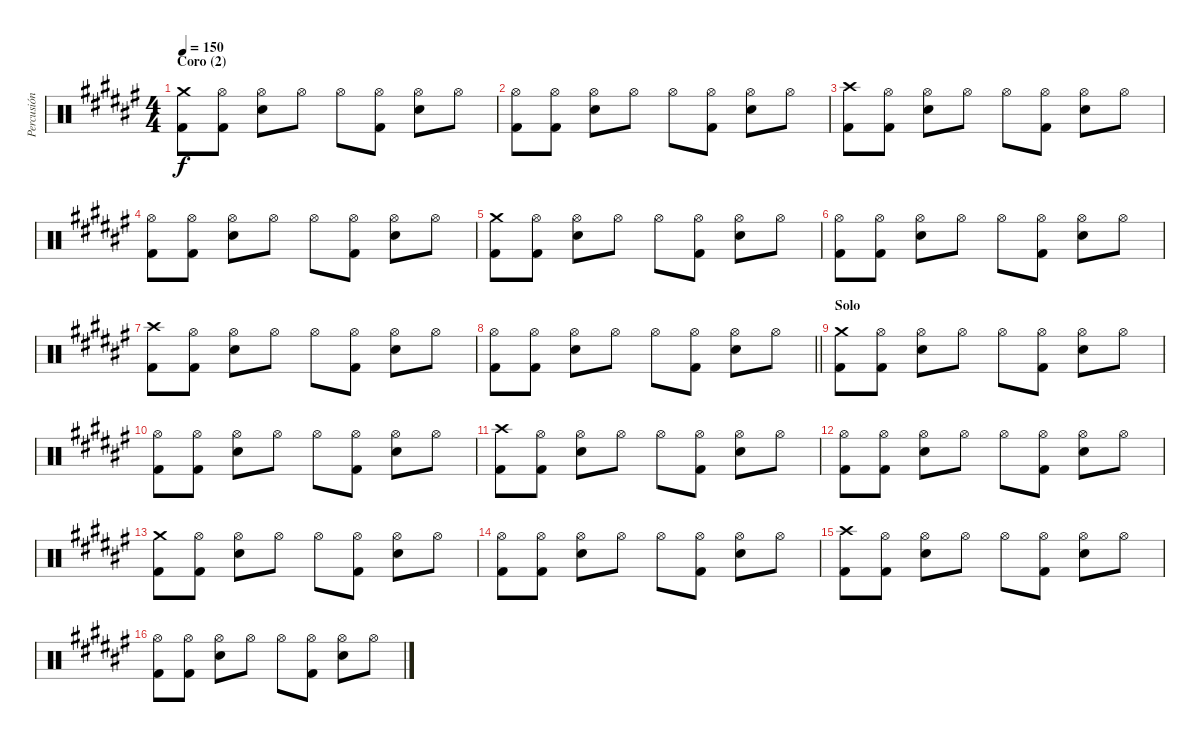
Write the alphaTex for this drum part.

\track ("Percusión" "Percusión") {instrument percussion}
\staff {score}
\articulation defaults
\ts (4 4)
\section ("" "Coro (2)")
\tempo 150
\clef neutral
\ks d#minor
("Crash medium (hit)" "Kick (hit) 2").8{dy f} ("Hi-Hat (open)" "Kick (hit) 2").8 ("Hi-Hat (open)" "Electric Snare (hit)").8 "Hi-Hat (open)".8 "Hi-Hat (open)".8 ("Hi-Hat (open)" "Kick (hit) 2").8 ("Hi-Hat (open)" "Electric Snare (hit)").8 "Hi-Hat (open)".8 |
("Hi-Hat (open)" "Kick (hit) 2").8 ("Hi-Hat (open)" "Kick (hit) 2").8 ("Hi-Hat (open)" "Electric Snare (hit)").8 "Hi-Hat (open)".8 "Hi-Hat (open)".8 ("Hi-Hat (open)" "Kick (hit) 2").8 ("Hi-Hat (open)" "Electric Snare (hit)").8 "Hi-Hat (open)".8 |
("Crash high (hit)" "Kick (hit) 2").8 ("Hi-Hat (open)" "Kick (hit) 2").8 ("Hi-Hat (open)" "Electric Snare (hit)").8 "Hi-Hat (open)".8 "Hi-Hat (open)".8 ("Hi-Hat (open)" "Kick (hit) 2").8 ("Hi-Hat (open)" "Electric Snare (hit)").8 "Hi-Hat (open)".8 |
("Hi-Hat (open)" "Kick (hit) 2").8 ("Hi-Hat (open)" "Kick (hit) 2").8 ("Hi-Hat (open)" "Electric Snare (hit)").8 "Hi-Hat (open)".8 "Hi-Hat (open)".8 ("Hi-Hat (open)" "Kick (hit) 2").8 ("Hi-Hat (open)" "Electric Snare (hit)").8 "Hi-Hat (open)".8 |
("Crash medium (hit)" "Kick (hit) 2").8 ("Hi-Hat (open)" "Kick (hit) 2").8 ("Hi-Hat (open)" "Electric Snare (hit)").8 "Hi-Hat (open)".8 "Hi-Hat (open)".8 ("Hi-Hat (open)" "Kick (hit) 2").8 ("Hi-Hat (open)" "Electric Snare (hit)").8 "Hi-Hat (open)".8 |
("Hi-Hat (open)" "Kick (hit) 2").8 ("Hi-Hat (open)" "Kick (hit) 2").8 ("Hi-Hat (open)" "Electric Snare (hit)").8 "Hi-Hat (open)".8 "Hi-Hat (open)".8 ("Hi-Hat (open)" "Kick (hit) 2").8 ("Hi-Hat (open)" "Electric Snare (hit)").8 "Hi-Hat (open)".8 |
("Crash high (hit)" "Kick (hit) 2").8 ("Hi-Hat (open)" "Kick (hit) 2").8 ("Hi-Hat (open)" "Electric Snare (hit)").8 "Hi-Hat (open)".8 "Hi-Hat (open)".8 ("Hi-Hat (open)" "Kick (hit) 2").8 ("Hi-Hat (open)" "Electric Snare (hit)").8 "Hi-Hat (open)".8 |
\barLineRight lightlight
("Hi-Hat (open)" "Kick (hit) 2").8 ("Hi-Hat (open)" "Kick (hit) 2").8 ("Hi-Hat (open)" "Electric Snare (hit)").8 "Hi-Hat (open)".8 "Hi-Hat (open)".8 ("Hi-Hat (open)" "Kick (hit) 2").8 ("Hi-Hat (open)" "Electric Snare (hit)").8 "Hi-Hat (open)".8 |
\section ("" "Solo")
("Crash medium (hit)" "Kick (hit) 2").8 ("Hi-Hat (open)" "Kick (hit) 2").8 ("Hi-Hat (open)" "Electric Snare (hit)").8 "Hi-Hat (open)".8 "Hi-Hat (open)".8 ("Hi-Hat (open)" "Kick (hit) 2").8 ("Hi-Hat (open)" "Electric Snare (hit)").8 "Hi-Hat (open)".8 |
("Hi-Hat (open)" "Kick (hit) 2").8 ("Hi-Hat (open)" "Kick (hit) 2").8 ("Hi-Hat (open)" "Electric Snare (hit)").8 "Hi-Hat (open)".8 "Hi-Hat (open)".8 ("Hi-Hat (open)" "Kick (hit) 2").8 ("Hi-Hat (open)" "Electric Snare (hit)").8 "Hi-Hat (open)".8 |
("Crash high (hit)" "Kick (hit) 2").8 ("Hi-Hat (open)" "Kick (hit) 2").8 ("Hi-Hat (open)" "Electric Snare (hit)").8 "Hi-Hat (open)".8 "Hi-Hat (open)".8 ("Hi-Hat (open)" "Kick (hit) 2").8 ("Hi-Hat (open)" "Electric Snare (hit)").8 "Hi-Hat (open)".8 |
("Hi-Hat (open)" "Kick (hit) 2").8 ("Hi-Hat (open)" "Kick (hit) 2").8 ("Hi-Hat (open)" "Electric Snare (hit)").8 "Hi-Hat (open)".8 "Hi-Hat (open)".8 ("Hi-Hat (open)" "Kick (hit) 2").8 ("Hi-Hat (open)" "Electric Snare (hit)").8 "Hi-Hat (open)".8 |
("Crash medium (hit)" "Kick (hit) 2").8 ("Hi-Hat (open)" "Kick (hit) 2").8 ("Hi-Hat (open)" "Electric Snare (hit)").8 "Hi-Hat (open)".8 "Hi-Hat (open)".8 ("Hi-Hat (open)" "Kick (hit) 2").8 ("Hi-Hat (open)" "Electric Snare (hit)").8 "Hi-Hat (open)".8 |
("Hi-Hat (open)" "Kick (hit) 2").8 ("Hi-Hat (open)" "Kick (hit) 2").8 ("Hi-Hat (open)" "Electric Snare (hit)").8 "Hi-Hat (open)".8 "Hi-Hat (open)".8 ("Hi-Hat (open)" "Kick (hit) 2").8 ("Hi-Hat (open)" "Electric Snare (hit)").8 "Hi-Hat (open)".8 |
("Crash high (hit)" "Kick (hit) 2").8 ("Hi-Hat (open)" "Kick (hit) 2").8 ("Hi-Hat (open)" "Electric Snare (hit)").8 "Hi-Hat (open)".8 "Hi-Hat (open)".8 ("Hi-Hat (open)" "Kick (hit) 2").8 ("Hi-Hat (open)" "Electric Snare (hit)").8 "Hi-Hat (open)".8 |
("Hi-Hat (open)" "Kick (hit) 2").8 ("Hi-Hat (open)" "Kick (hit) 2").8 ("Hi-Hat (open)" "Electric Snare (hit)").8 "Hi-Hat (open)".8 "Hi-Hat (open)".8 ("Hi-Hat (open)" "Kick (hit) 2").8 ("Hi-Hat (open)" "Electric Snare (hit)").8 "Hi-Hat (open)".8
